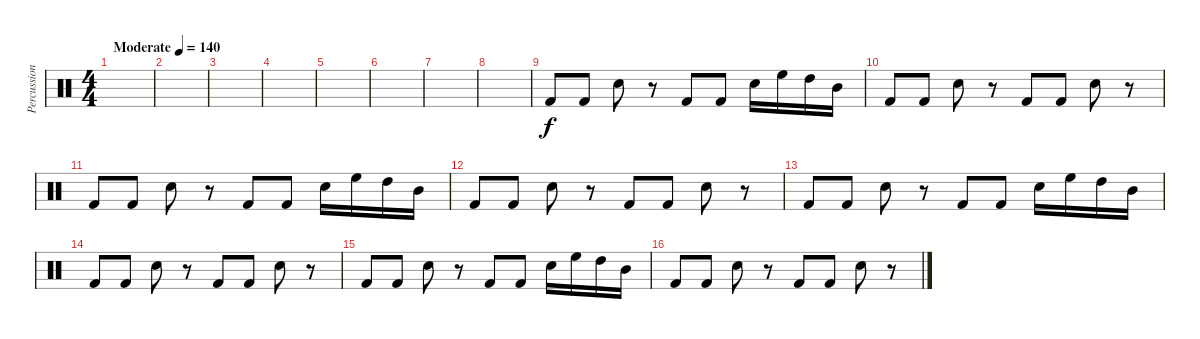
\track ("Percussion" "Percussion") {instrument percussion}
\staff {score}
\articulation defaults
\ts (4 4)
\tempo (140 "Moderate")
\clef neutral
\ks c
|
|
|
|
|
|
|
|
"Kick (hit) 2".8 "Kick (hit) 2".8 "Snare (hit) 2".8 r.8 "Kick (hit) 2".8 "Kick (hit) 2".8 "Snare (hit) 2".16 "High Floor Tom (hit)".16 "High Tom (hit)".16 "Mid Tom (hit)".16 |
"Kick (hit) 2".8 "Kick (hit) 2".8 "Snare (hit) 2".8 r.8 "Kick (hit) 2".8 "Kick (hit) 2".8 "Snare (hit) 2".8 r.8 |
"Kick (hit) 2".8 "Kick (hit) 2".8 "Snare (hit) 2".8 r.8 "Kick (hit) 2".8 "Kick (hit) 2".8 "Snare (hit) 2".16 "High Floor Tom (hit)".16 "High Tom (hit)".16 "Mid Tom (hit)".16 |
"Kick (hit) 2".8 "Kick (hit) 2".8 "Snare (hit) 2".8 r.8 "Kick (hit) 2".8 "Kick (hit) 2".8 "Snare (hit) 2".8 r.8 |
"Kick (hit) 2".8 "Kick (hit) 2".8 "Snare (hit) 2".8 r.8 "Kick (hit) 2".8 "Kick (hit) 2".8 "Snare (hit) 2".16 "High Floor Tom (hit)".16 "High Tom (hit)".16 "Mid Tom (hit)".16 |
"Kick (hit) 2".8 "Kick (hit) 2".8 "Snare (hit) 2".8 r.8 "Kick (hit) 2".8 "Kick (hit) 2".8 "Snare (hit) 2".8 r.8 |
"Kick (hit) 2".8 "Kick (hit) 2".8 "Snare (hit) 2".8 r.8 "Kick (hit) 2".8 "Kick (hit) 2".8 "Snare (hit) 2".16 "High Floor Tom (hit)".16 "High Tom (hit)".16 "Mid Tom (hit)".16 |
"Kick (hit) 2".8 "Kick (hit) 2".8 "Snare (hit) 2".8 r.8 "Kick (hit) 2".8 "Kick (hit) 2".8 "Snare (hit) 2".8 r.8
